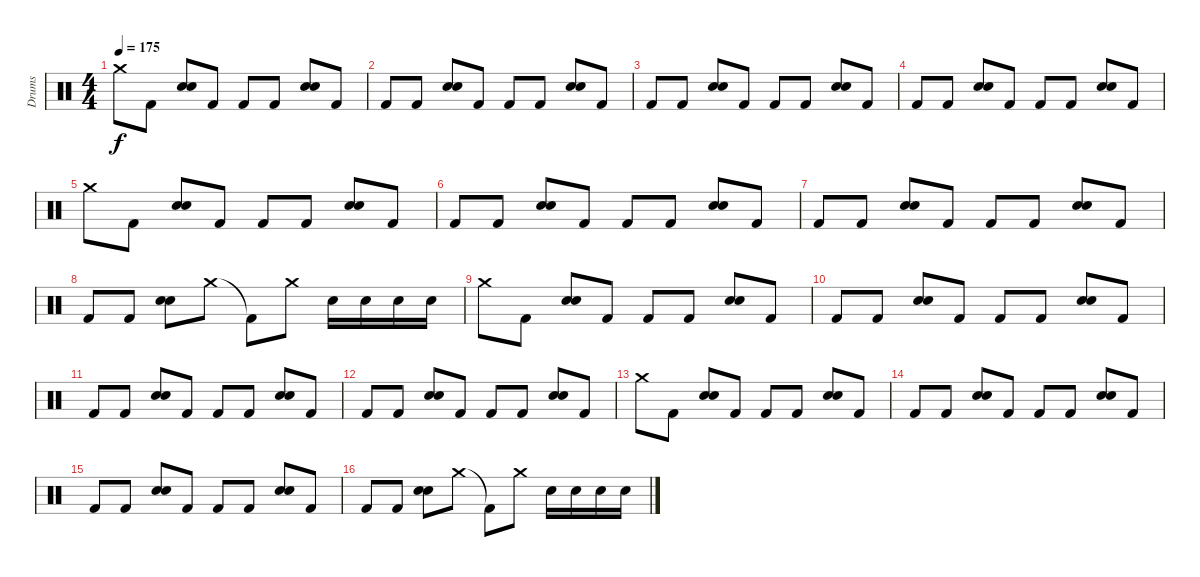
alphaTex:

\track ("Drums" "Drums") {instrument percussion}
\staff {score}
\articulation defaults
\ts (4 4)
\tempo 175
\clef neutral
\ks c "Crash medium (hit)".8{dy f} "Kick (hit) 2".8
("Snare (hit) 2" "Snare (hit) 2").8 "Kick (hit) 2".8 "Kick (hit) 2".8 "Kick (hit) 2".8 ("Snare (hit) 2" "Snare (hit) 2").8 "Kick (hit) 2".8 |
"Kick (hit) 2".8 "Kick (hit) 2".8 ("Snare (hit) 2" "Snare (hit) 2").8 "Kick (hit) 2".8 "Kick (hit) 2".8 "Kick (hit) 2".8 ("Snare (hit) 2" "Snare (hit) 2").8 "Kick (hit) 2".8 |
"Kick (hit) 2".8 "Kick (hit) 2".8 ("Snare (hit) 2" "Snare (hit) 2").8 "Kick (hit) 2".8 "Kick (hit) 2".8 "Kick (hit) 2".8 ("Snare (hit) 2" "Snare (hit) 2").8 "Kick (hit) 2".8 |
"Kick (hit) 2".8 "Kick (hit) 2".8 ("Snare (hit) 2" "Snare (hit) 2").8 "Kick (hit) 2".8 "Kick (hit) 2".8 "Kick (hit) 2".8 ("Snare (hit) 2" "Snare (hit) 2").8 "Kick (hit) 2".8 |
"Crash medium (hit)".8 "Kick (hit) 2".8 ("Snare (hit) 2" "Snare (hit) 2").8 "Kick (hit) 2".8 "Kick (hit) 2".8 "Kick (hit) 2".8 ("Snare (hit) 2" "Snare (hit) 2").8 "Kick (hit) 2".8 |
"Kick (hit) 2".8 "Kick (hit) 2".8 ("Snare (hit) 2" "Snare (hit) 2").8 "Kick (hit) 2".8 "Kick (hit) 2".8 "Kick (hit) 2".8 ("Snare (hit) 2" "Snare (hit) 2").8 "Kick (hit) 2".8 |
"Kick (hit) 2".8 "Kick (hit) 2".8 ("Snare (hit) 2" "Snare (hit) 2").8 "Kick (hit) 2".8 "Kick (hit) 2".8 "Kick (hit) 2".8 ("Snare (hit) 2" "Snare (hit) 2").8 "Kick (hit) 2".8 |
"Kick (hit) 2".8 "Kick (hit) 2".8 ("Snare (hit) 2" "Snare (hit) 2").8 "Crash medium (hit)".8 "Kick (hit) 2"{t}.8 "Crash medium (hit)".8 "Snare (hit) 2".16 "Snare (hit) 2".16 "Snare (hit) 2".16 "Snare (hit) 2".16 |
"Crash medium (hit)".8 "Kick (hit) 2".8 ("Snare (hit) 2" "Snare (hit) 2").8 "Kick (hit) 2".8 "Kick (hit) 2".8 "Kick (hit) 2".8 ("Snare (hit) 2" "Snare (hit) 2").8 "Kick (hit) 2".8 |
"Kick (hit) 2".8 "Kick (hit) 2".8 ("Snare (hit) 2" "Snare (hit) 2").8 "Kick (hit) 2".8 "Kick (hit) 2".8 "Kick (hit) 2".8 ("Snare (hit) 2" "Snare (hit) 2").8 "Kick (hit) 2".8 |
"Kick (hit) 2".8 "Kick (hit) 2".8 ("Snare (hit) 2" "Snare (hit) 2").8 "Kick (hit) 2".8 "Kick (hit) 2".8 "Kick (hit) 2".8 ("Snare (hit) 2" "Snare (hit) 2").8 "Kick (hit) 2".8 |
"Kick (hit) 2".8 "Kick (hit) 2".8 ("Snare (hit) 2" "Snare (hit) 2").8 "Kick (hit) 2".8 "Kick (hit) 2".8 "Kick (hit) 2".8 ("Snare (hit) 2" "Snare (hit) 2").8 "Kick (hit) 2".8 |
"Crash medium (hit)".8 "Kick (hit) 2".8 ("Snare (hit) 2" "Snare (hit) 2").8 "Kick (hit) 2".8 "Kick (hit) 2".8 "Kick (hit) 2".8 ("Snare (hit) 2" "Snare (hit) 2").8 "Kick (hit) 2".8 |
"Kick (hit) 2".8 "Kick (hit) 2".8 ("Snare (hit) 2" "Snare (hit) 2").8 "Kick (hit) 2".8 "Kick (hit) 2".8 "Kick (hit) 2".8 ("Snare (hit) 2" "Snare (hit) 2").8 "Kick (hit) 2".8 |
"Kick (hit) 2".8 "Kick (hit) 2".8 ("Snare (hit) 2" "Snare (hit) 2").8 "Kick (hit) 2".8 "Kick (hit) 2".8 "Kick (hit) 2".8 ("Snare (hit) 2" "Snare (hit) 2").8 "Kick (hit) 2".8 |
"Kick (hit) 2".8 "Kick (hit) 2".8 ("Snare (hit) 2" "Snare (hit) 2").8 "Crash medium (hit)".8 "Kick (hit) 2"{t}.8 "Crash medium (hit)".8 "Snare (hit) 2".16 "Snare (hit) 2".16 "Snare (hit) 2".16 "Snare (hit) 2".16
